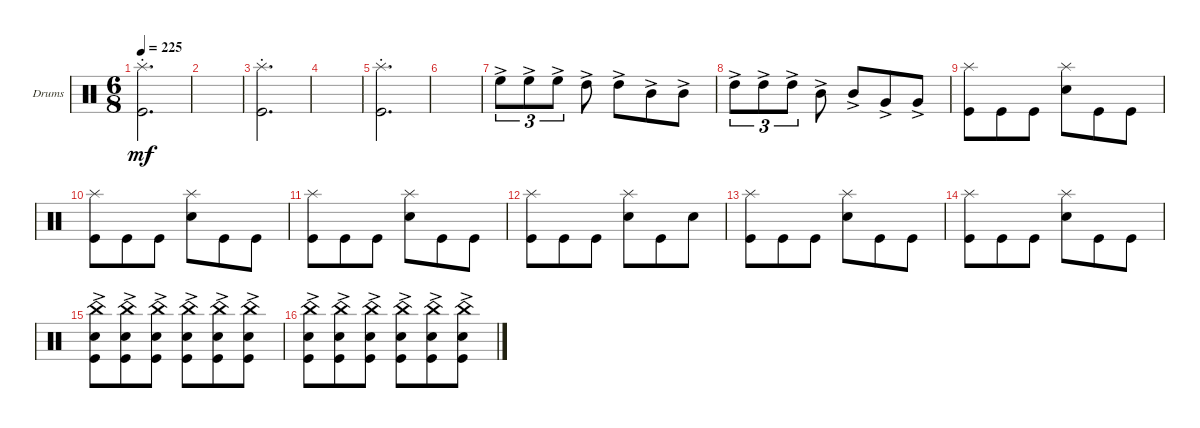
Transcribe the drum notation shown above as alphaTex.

\bracketExtendMode groupsimilarinstruments
\firstSystemTrackNameOrientation horizontal
\otherSystemsTrackNameOrientation horizontal
\track ("Drumkit" "Drums") {instrument percussion}
\staff {score}
\articulation defaults
\ts (6 8)
\tempo 225
\clef neutral
\ks c
("Kick (hit)" "Splash (hit)"{st}).2{d dy mf} |
|
("Kick (hit)" "Splash (hit)"{st}).2{d} |
|
("Kick (hit)" "Splash (hit)"{st}).2{d} |
|
"High Floor Tom (hit)"{ac}.8{tu (3 2)} "High Floor Tom (hit)"{ac}.8{tu (3 2)} "High Floor Tom (hit)"{ac}.8{tu (3 2)} "High Tom (hit)"{ac}.8 "High Tom (hit)"{ac}.8 "Mid Tom (hit)"{ac}.8 "Mid Tom (hit)"{ac}.8 |
"High Tom (hit)"{ac}.8{tu (3 2)} "High Tom (hit)"{ac}.8{tu (3 2)} "High Tom (hit)"{ac}.8{tu (3 2)} "Mid Tom (hit)"{ac}.8 "Mid Tom (hit)"{ac}.8 "Very Low Tom (hit)"{ac}.8 "Very Low Tom (hit)"{ac}.8 |
("Kick (hit)" "Splash (hit)").8 "Kick (hit)".8 "Kick (hit)".8 ("Snare (hit) 2" "Splash (hit)").8 "Kick (hit)".8 "Kick (hit)".8 |
("Kick (hit)" "Splash (hit)").8 "Kick (hit)".8 "Kick (hit)".8 ("Snare (hit) 2" "Splash (hit)").8 "Kick (hit)".8 "Kick (hit)".8 |
("Kick (hit)" "Splash (hit)").8 "Kick (hit)".8 "Kick (hit)".8 ("Snare (hit) 2" "Splash (hit)").8 "Kick (hit)".8 "Kick (hit)".8 |
("Kick (hit)" "Splash (hit)").8 "Kick (hit)".8 "Kick (hit)".8 ("Snare (hit) 2" "Splash (hit)").8 "Kick (hit)".8 "Snare (hit) 2".8 |
("Kick (hit)" "Splash (hit)").8 "Kick (hit)".8 "Kick (hit)".8 ("Snare (hit) 2" "Splash (hit)").8 "Kick (hit)".8 "Kick (hit)".8 |
("Kick (hit)" "Splash (hit)").8 "Kick (hit)".8 "Kick (hit)".8 ("Snare (hit) 2" "Splash (hit)").8 "Kick (hit)".8 "Kick (hit)".8 |
("Snare (hit) 2"{ac} "China (hit)" "Kick (hit)").8 ("Snare (hit) 2"{ac} "China (hit)" "Kick (hit)").8 ("Snare (hit) 2"{ac} "China (hit)" "Kick (hit)").8 ("Snare (hit) 2"{ac} "China (hit)" "Kick (hit)").8 ("Snare (hit) 2"{ac} "China (hit)" "Kick (hit)").8 ("Snare (hit) 2"{ac} "China (hit)" "Kick (hit)").8 |
("Snare (hit) 2"{ac} "China (hit)" "Kick (hit)").8 ("Snare (hit) 2"{ac} "China (hit)" "Kick (hit)").8 ("Snare (hit) 2"{ac} "China (hit)" "Kick (hit)").8 ("Snare (hit) 2"{ac} "China (hit)" "Kick (hit)").8 ("Snare (hit) 2"{ac} "China (hit)" "Kick (hit)").8 ("Snare (hit) 2"{ac} "China (hit)" "Kick (hit)").8
